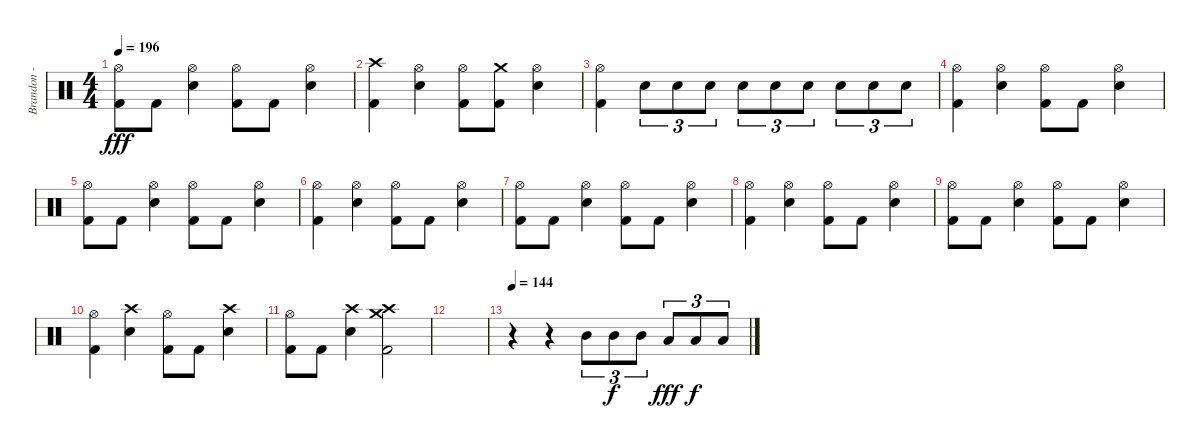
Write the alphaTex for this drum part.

\track ("Brandon - Drums" "Brandon - ") {instrument percussion}
\staff {score}
\articulation defaults
\ts (4 4)
\tempo 196
\clef neutral
\ks c
("Hi-Hat (open)" "Kick (hit) 2").8{dy fff} "Kick (hit) 2".8 ("Hi-Hat (open)" "Snare (hit) 2").4 ("Hi-Hat (open)" "Kick (hit) 2").8 "Kick (hit) 2".8 ("Hi-Hat (open)" "Snare (hit) 2").4 |
("Crash high (hit)" "Kick (hit) 2").4 ("Hi-Hat (open)" "Snare (hit) 2").4 ("Hi-Hat (open)" "Kick (hit) 2").8 ("Crash medium (hit)" "Kick (hit) 2").8 ("Hi-Hat (open)" "Snare (hit) 2").4 |
("Hi-Hat (open)" "Kick (hit) 2").4 "Snare (hit) 2".8{tu (3 2)} "Snare (hit) 2".8{tu (3 2)} "Snare (hit) 2".8{tu (3 2)} "Snare (hit) 2".8{tu (3 2)} "Snare (hit) 2".8{tu (3 2)} "Snare (hit) 2".8{tu (3 2)} "Snare (hit) 2".8{tu (3 2)} "Snare (hit) 2".8{tu (3 2)} "Snare (hit) 2".8{tu (3 2)} |
("Hi-Hat (open)" "Kick (hit) 2").4 ("Hi-Hat (open)" "Snare (hit) 2").4 ("Hi-Hat (open)" "Kick (hit) 2").8 "Kick (hit) 2".8 ("Hi-Hat (open)" "Snare (hit) 2").4 |
("Hi-Hat (open)" "Kick (hit) 2").8 "Kick (hit) 2".8 ("Hi-Hat (open)" "Snare (hit) 2").4 ("Hi-Hat (open)" "Kick (hit) 2").8 "Kick (hit) 2".8 ("Hi-Hat (open)" "Snare (hit) 2").4 |
("Hi-Hat (open)" "Kick (hit) 2").4 ("Hi-Hat (open)" "Snare (hit) 2").4 ("Hi-Hat (open)" "Kick (hit) 2").8 "Kick (hit) 2".8 ("Hi-Hat (open)" "Snare (hit) 2").4 |
("Hi-Hat (open)" "Kick (hit) 2").8 "Kick (hit) 2".8 ("Hi-Hat (open)" "Snare (hit) 2").4 ("Hi-Hat (open)" "Kick (hit) 2").8 "Kick (hit) 2".8 ("Hi-Hat (open)" "Snare (hit) 2").4 |
("Hi-Hat (open)" "Kick (hit) 2").4 ("Hi-Hat (open)" "Snare (hit) 2").4 ("Hi-Hat (open)" "Kick (hit) 2").8 "Kick (hit) 2".8 ("Hi-Hat (open)" "Snare (hit) 2").4 |
("Hi-Hat (open)" "Kick (hit) 2").8 "Kick (hit) 2".8 ("Hi-Hat (open)" "Snare (hit) 2").4 ("Hi-Hat (open)" "Kick (hit) 2").8 "Kick (hit) 2".8 ("Hi-Hat (open)" "Snare (hit) 2").4 |
("Hi-Hat (open)" "Kick (hit) 2").4 ("Crash high (hit)" "Snare (hit) 2").4 ("Hi-Hat (open)" "Kick (hit) 2").8 "Kick (hit) 2".8 ("Crash high (hit)" "Snare (hit) 2").4 |
("Hi-Hat (open)" "Kick (hit) 2").8 "Kick (hit) 2".8 ("Crash high (hit)" "Snare (hit) 2").4 ("Crash high (hit)" "Crash medium (hit)" "Kick (hit) 2").2 |
|
\tempo 144
r.4 r.4 "Mid Tom (hit)".8{tu (3 2)} "Mid Tom (hit)".8{tu (3 2) dy f} "Mid Tom (hit)".8{tu (3 2)} "Low Tom (hit)".8{tu (3 2) dy fff} "Low Tom (hit)".8{tu (3 2) dy f} "Low Tom (hit)".8{tu (3 2)}
